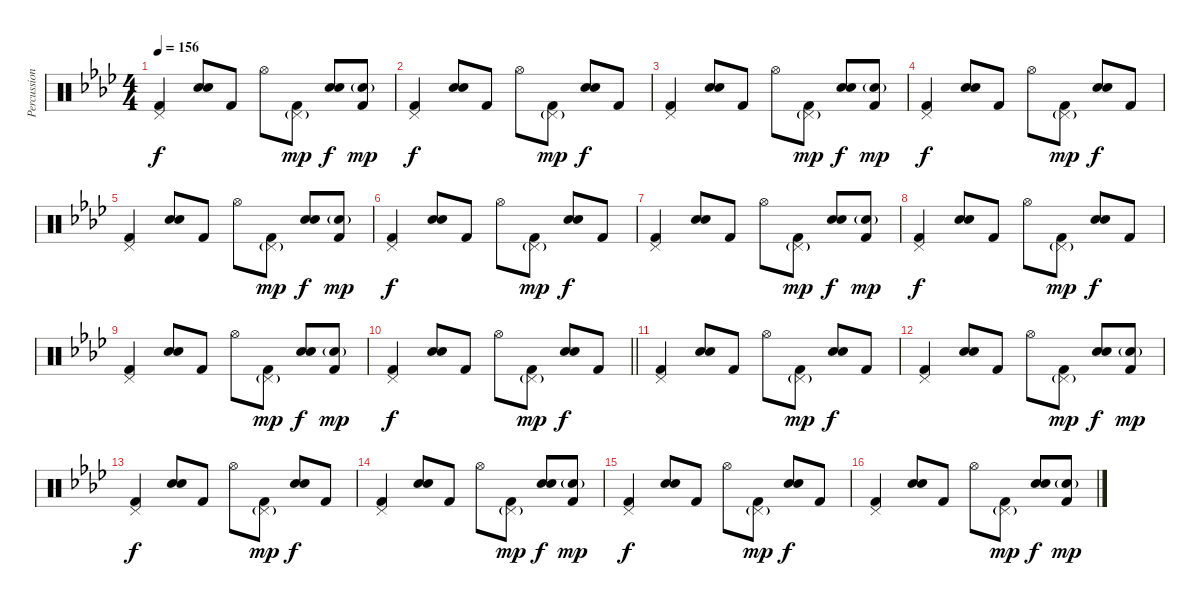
\track ("Percussion" "Percussion") {instrument percussion}
\staff {score}
\articulation defaults
\ts (4 4)
\tempo 156
\clef neutral
\ks fminor
("Pedal Hi-Hat (hit)" "Kick (hit) 2").4{dy f} ("Hand Clap (hit)" "Electric Snare (hit)").8 "Kick (hit) 2".8 "Hi-Hat (open)".8 ("Pedal Hi-Hat (hit)"{g} "Kick (hit) 2").8{dy mp} ("Hand Clap (hit)" "Electric Snare (hit)").8{dy f} ("Hand Clap (hit)"{g} "Kick (hit) 2").8{dy mp} |
("Pedal Hi-Hat (hit)" "Kick (hit) 2").4{dy f} ("Hand Clap (hit)" "Electric Snare (hit)").8 "Kick (hit) 2".8 "Hi-Hat (open)".8 ("Pedal Hi-Hat (hit)"{g} "Kick (hit) 2").8{dy mp} ("Hand Clap (hit)" "Electric Snare (hit)").8{dy f} "Kick (hit) 2".8 |
("Pedal Hi-Hat (hit)" "Kick (hit) 2").4 ("Hand Clap (hit)" "Electric Snare (hit)").8 "Kick (hit) 2".8 "Hi-Hat (open)".8 ("Pedal Hi-Hat (hit)"{g} "Kick (hit) 2").8{dy mp} ("Hand Clap (hit)" "Electric Snare (hit)").8{dy f} ("Hand Clap (hit)"{g} "Kick (hit) 2").8{dy mp} |
("Pedal Hi-Hat (hit)" "Kick (hit) 2").4{dy f} ("Hand Clap (hit)" "Electric Snare (hit)").8 "Kick (hit) 2".8 "Hi-Hat (open)".8 ("Pedal Hi-Hat (hit)"{g} "Kick (hit) 2").8{dy mp} ("Hand Clap (hit)" "Electric Snare (hit)").8{dy f} "Kick (hit) 2".8 |
("Pedal Hi-Hat (hit)" "Kick (hit) 2").4 ("Hand Clap (hit)" "Electric Snare (hit)").8 "Kick (hit) 2".8 "Hi-Hat (open)".8 ("Pedal Hi-Hat (hit)"{g} "Kick (hit) 2").8{dy mp} ("Hand Clap (hit)" "Electric Snare (hit)").8{dy f} ("Hand Clap (hit)"{g} "Kick (hit) 2").8{dy mp} |
("Pedal Hi-Hat (hit)" "Kick (hit) 2").4{dy f} ("Hand Clap (hit)" "Electric Snare (hit)").8 "Kick (hit) 2".8 "Hi-Hat (open)".8 ("Pedal Hi-Hat (hit)"{g} "Kick (hit) 2").8{dy mp} ("Hand Clap (hit)" "Electric Snare (hit)").8{dy f} "Kick (hit) 2".8 |
("Pedal Hi-Hat (hit)" "Kick (hit) 2").4 ("Hand Clap (hit)" "Electric Snare (hit)").8 "Kick (hit) 2".8 "Hi-Hat (open)".8 ("Pedal Hi-Hat (hit)"{g} "Kick (hit) 2").8{dy mp} ("Hand Clap (hit)" "Electric Snare (hit)").8{dy f} ("Hand Clap (hit)"{g} "Kick (hit) 2").8{dy mp} |
("Pedal Hi-Hat (hit)" "Kick (hit) 2").4{dy f} ("Hand Clap (hit)" "Electric Snare (hit)").8 "Kick (hit) 2".8 "Hi-Hat (open)".8 ("Pedal Hi-Hat (hit)"{g} "Kick (hit) 2").8{dy mp} ("Hand Clap (hit)" "Electric Snare (hit)").8{dy f} "Kick (hit) 2".8 |
("Pedal Hi-Hat (hit)" "Kick (hit) 2").4 ("Hand Clap (hit)" "Electric Snare (hit)").8 "Kick (hit) 2".8 "Hi-Hat (open)".8 ("Pedal Hi-Hat (hit)"{g} "Kick (hit) 2").8{dy mp} ("Hand Clap (hit)" "Electric Snare (hit)").8{dy f} ("Hand Clap (hit)"{g} "Kick (hit) 2").8{dy mp} |
\barLineRight lightlight
("Pedal Hi-Hat (hit)" "Kick (hit) 2").4{dy f} ("Hand Clap (hit)" "Electric Snare (hit)").8 "Kick (hit) 2".8 "Hi-Hat (open)".8 ("Pedal Hi-Hat (hit)"{g} "Kick (hit) 2").8{dy mp} ("Hand Clap (hit)" "Electric Snare (hit)").8{dy f} "Kick (hit) 2".8 |
("Pedal Hi-Hat (hit)" "Kick (hit) 2").4 ("Hand Clap (hit)" "Electric Snare (hit)").8 "Kick (hit) 2".8 "Hi-Hat (open)".8 ("Pedal Hi-Hat (hit)"{g} "Kick (hit) 2").8{dy mp} ("Hand Clap (hit)" "Electric Snare (hit)").8{dy f} "Kick (hit) 2".8 |
("Pedal Hi-Hat (hit)" "Kick (hit) 2").4 ("Hand Clap (hit)" "Electric Snare (hit)").8 "Kick (hit) 2".8 "Hi-Hat (open)".8 ("Pedal Hi-Hat (hit)"{g} "Kick (hit) 2").8{dy mp} ("Hand Clap (hit)" "Electric Snare (hit)").8{dy f} ("Hand Clap (hit)"{g} "Kick (hit) 2").8{dy mp} |
("Pedal Hi-Hat (hit)" "Kick (hit) 2").4{dy f} ("Hand Clap (hit)" "Electric Snare (hit)").8 "Kick (hit) 2".8 "Hi-Hat (open)".8 ("Pedal Hi-Hat (hit)"{g} "Kick (hit) 2").8{dy mp} ("Hand Clap (hit)" "Electric Snare (hit)").8{dy f} "Kick (hit) 2".8 |
("Pedal Hi-Hat (hit)" "Kick (hit) 2").4 ("Hand Clap (hit)" "Electric Snare (hit)").8 "Kick (hit) 2".8 "Hi-Hat (open)".8 ("Pedal Hi-Hat (hit)"{g} "Kick (hit) 2").8{dy mp} ("Hand Clap (hit)" "Electric Snare (hit)").8{dy f} ("Hand Clap (hit)"{g} "Kick (hit) 2").8{dy mp} |
("Pedal Hi-Hat (hit)" "Kick (hit) 2").4{dy f} ("Hand Clap (hit)" "Electric Snare (hit)").8 "Kick (hit) 2".8 "Hi-Hat (open)".8 ("Pedal Hi-Hat (hit)"{g} "Kick (hit) 2").8{dy mp} ("Hand Clap (hit)" "Electric Snare (hit)").8{dy f} "Kick (hit) 2".8 |
("Pedal Hi-Hat (hit)" "Kick (hit) 2").4 ("Hand Clap (hit)" "Electric Snare (hit)").8 "Kick (hit) 2".8 "Hi-Hat (open)".8 ("Pedal Hi-Hat (hit)"{g} "Kick (hit) 2").8{dy mp} ("Hand Clap (hit)" "Electric Snare (hit)").8{dy f} ("Hand Clap (hit)"{g} "Kick (hit) 2").8{dy mp}
